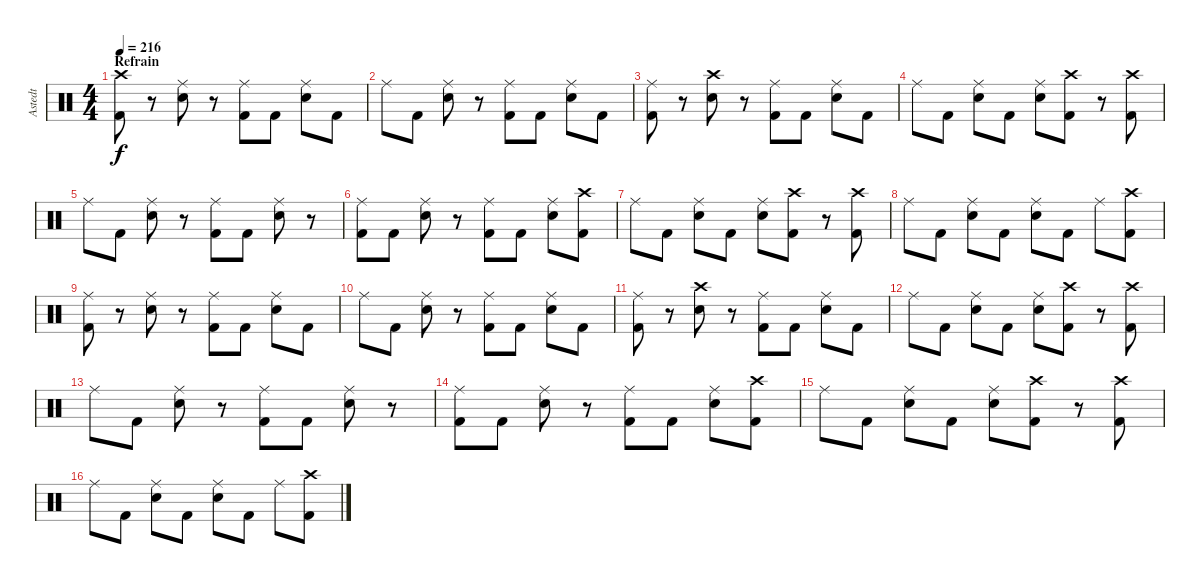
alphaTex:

\track ("Astedt" "Astedt") {instrument percussion}
\staff {score}
\articulation defaults
\ts (4 4)
\section ("" "Refrain")
\tempo 216
\clef neutral
\ks c
("Crash high (hit)" "Kick (hit) 2").8{dy f} r.8 ("Ride (middle)" "Snare (hit) 2").8 r.8 ("Ride (middle)" "Kick (hit) 2").8 "Kick (hit) 2".8 ("Ride (middle)" "Snare (hit) 2").8 "Kick (hit) 2".8 |
"Ride (middle)".8 "Kick (hit) 2".8 ("Ride (middle)" "Snare (hit) 2").8 r.8 ("Ride (middle)" "Kick (hit) 2").8 "Kick (hit) 2".8 ("Ride (middle)" "Snare (hit) 2").8 "Kick (hit) 2".8 |
("Ride (middle)" "Kick (hit) 2").8 r.8 ("Crash high (hit)" "Snare (hit) 2").8 r.8 ("Ride (middle)" "Kick (hit) 2").8 "Kick (hit) 2".8 ("Ride (middle)" "Snare (hit) 2").8 "Kick (hit) 2".8 |
"Ride (middle)".8 "Kick (hit) 2".8 ("Ride (middle)" "Snare (hit) 2").8 "Kick (hit) 2".8 ("Ride (middle)" "Snare (hit) 2").8 ("Crash high (hit)" "Kick (hit) 2").8 r.8 ("Crash high (hit)" "Kick (hit) 2").8 |
"Ride (middle)".8 "Kick (hit) 2".8 ("Ride (middle)" "Snare (hit) 2").8 r.8 ("Ride (middle)" "Kick (hit) 2").8 "Kick (hit) 2".8 ("Ride (middle)" "Snare (hit) 2").8 r.8 |
("Ride (middle)" "Kick (hit) 2").8 "Kick (hit) 2".8 ("Ride (middle)" "Snare (hit) 2").8 r.8 ("Ride (middle)" "Kick (hit) 2").8 "Kick (hit) 2".8 ("Ride (middle)" "Snare (hit) 2").8 ("Crash high (hit)" "Kick (hit) 2").8 |
"Ride (middle)".8 "Kick (hit) 2".8 ("Ride (middle)" "Snare (hit) 2").8 "Kick (hit) 2".8 ("Ride (middle)" "Snare (hit) 2").8 ("Crash high (hit)" "Kick (hit) 2").8 r.8 ("Crash high (hit)" "Kick (hit) 2").8 |
"Ride (middle)".8 "Kick (hit) 2".8 ("Ride (middle)" "Snare (hit) 2").8 "Kick (hit) 2".8 ("Ride (middle)" "Snare (hit) 2").8 "Kick (hit) 2".8 "Ride (middle)".8 ("Crash high (hit)" "Kick (hit) 2").8 |
("Ride (middle)" "Kick (hit) 2").8 r.8 ("Ride (middle)" "Snare (hit) 2").8 r.8 ("Ride (middle)" "Kick (hit) 2").8 "Kick (hit) 2".8 ("Ride (middle)" "Snare (hit) 2").8 "Kick (hit) 2".8 |
"Ride (middle)".8 "Kick (hit) 2".8 ("Ride (middle)" "Snare (hit) 2").8 r.8 ("Ride (middle)" "Kick (hit) 2").8 "Kick (hit) 2".8 ("Ride (middle)" "Snare (hit) 2").8 "Kick (hit) 2".8 |
("Ride (middle)" "Kick (hit) 2").8 r.8 ("Crash high (hit)" "Snare (hit) 2").8 r.8 ("Ride (middle)" "Kick (hit) 2").8 "Kick (hit) 2".8 ("Ride (middle)" "Snare (hit) 2").8 "Kick (hit) 2".8 |
"Ride (middle)".8 "Kick (hit) 2".8 ("Ride (middle)" "Snare (hit) 2").8 "Kick (hit) 2".8 ("Ride (middle)" "Snare (hit) 2").8 ("Crash high (hit)" "Kick (hit) 2").8 r.8 ("Crash high (hit)" "Kick (hit) 2").8 |
"Ride (middle)".8 "Kick (hit) 2".8 ("Ride (middle)" "Snare (hit) 2").8 r.8 ("Ride (middle)" "Kick (hit) 2").8 "Kick (hit) 2".8 ("Ride (middle)" "Snare (hit) 2").8 r.8 |
("Ride (middle)" "Kick (hit) 2").8 "Kick (hit) 2".8 ("Ride (middle)" "Snare (hit) 2").8 r.8 ("Ride (middle)" "Kick (hit) 2").8 "Kick (hit) 2".8 ("Ride (middle)" "Snare (hit) 2").8 ("Crash high (hit)" "Kick (hit) 2").8 |
"Ride (middle)".8 "Kick (hit) 2".8 ("Ride (middle)" "Snare (hit) 2").8 "Kick (hit) 2".8 ("Ride (middle)" "Snare (hit) 2").8 ("Crash high (hit)" "Kick (hit) 2").8 r.8 ("Crash high (hit)" "Kick (hit) 2").8 |
"Ride (middle)".8 "Kick (hit) 2".8 ("Ride (middle)" "Snare (hit) 2").8 "Kick (hit) 2".8 ("Ride (middle)" "Snare (hit) 2").8 "Kick (hit) 2".8 "Ride (middle)".8 ("Crash high (hit)" "Kick (hit) 2").8
